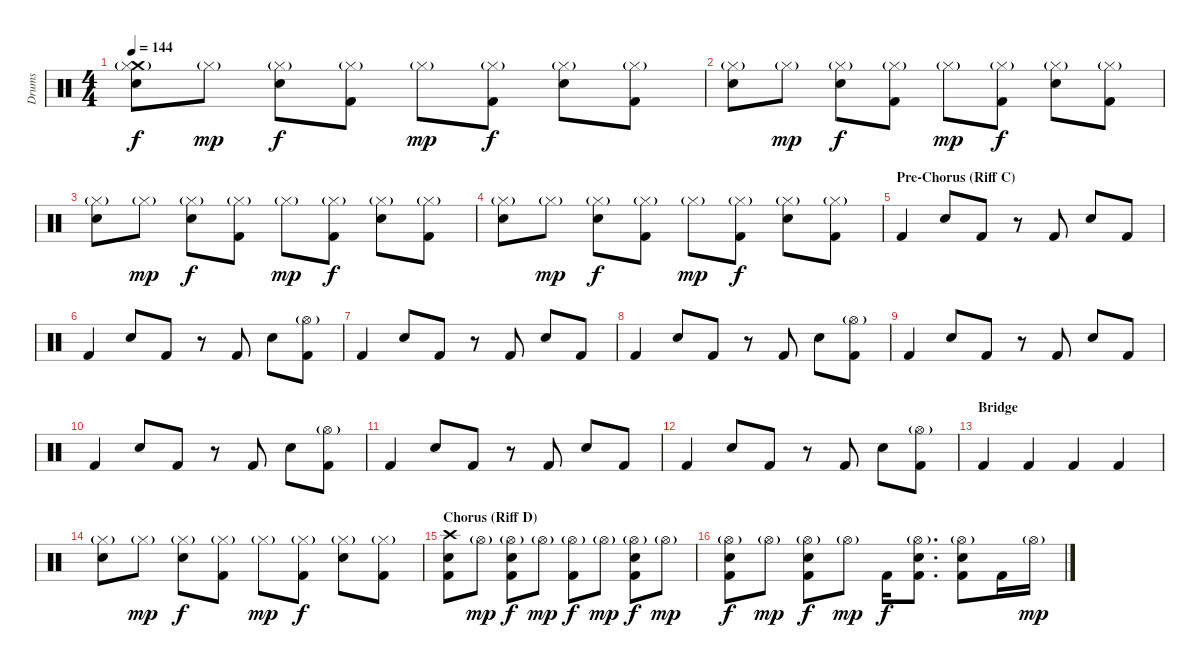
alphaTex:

\track ("Drums" "Drums") {instrument percussion}
\staff {score}
\articulation defaults
\ts (4 4)
\tempo 144
\clef neutral
\ks c
("Crash medium (hit)" "Hi-Hat (closed)"{g} "Electric Snare (hit)").8{dy f} "Hi-Hat (closed)"{g}.8{dy mp} ("Hi-Hat (closed)"{g} "Electric Snare (hit)").8{dy f} ("Hi-Hat (closed)"{g} "Kick (hit) 2").8 "Hi-Hat (closed)"{g}.8{dy mp} ("Hi-Hat (closed)"{g} "Kick (hit) 2").8{dy f} ("Hi-Hat (closed)"{g} "Electric Snare (hit)").8 ("Hi-Hat (closed)"{g} "Kick (hit) 2").8 |
("Hi-Hat (closed)"{g} "Electric Snare (hit)").8 "Hi-Hat (closed)"{g}.8{dy mp} ("Hi-Hat (closed)"{g} "Electric Snare (hit)").8{dy f} ("Hi-Hat (closed)"{g} "Kick (hit) 2").8 "Hi-Hat (closed)"{g}.8{dy mp} ("Hi-Hat (closed)"{g} "Kick (hit) 2").8{dy f} ("Hi-Hat (closed)"{g} "Electric Snare (hit)").8 ("Hi-Hat (closed)"{g} "Kick (hit) 2").8 |
("Hi-Hat (closed)"{g} "Electric Snare (hit)").8 "Hi-Hat (closed)"{g}.8{dy mp} ("Hi-Hat (closed)"{g} "Electric Snare (hit)").8{dy f} ("Hi-Hat (closed)"{g} "Kick (hit) 2").8 "Hi-Hat (closed)"{g}.8{dy mp} ("Hi-Hat (closed)"{g} "Kick (hit) 2").8{dy f} ("Hi-Hat (closed)"{g} "Electric Snare (hit)").8 ("Hi-Hat (closed)"{g} "Kick (hit) 2").8 |
("Hi-Hat (closed)"{g} "Electric Snare (hit)").8 "Hi-Hat (closed)"{g}.8{dy mp} ("Hi-Hat (closed)"{g} "Electric Snare (hit)").8{dy f} ("Hi-Hat (closed)"{g} "Kick (hit) 2").8 "Hi-Hat (closed)"{g}.8{dy mp} ("Hi-Hat (closed)"{g} "Kick (hit) 2").8{dy f} ("Hi-Hat (closed)"{g} "Electric Snare (hit)").8 ("Hi-Hat (closed)"{g} "Kick (hit) 2").8 |
\section ("" "Pre-Chorus (Riff C)")
"Kick (hit) 2".4 "Snare (hit) 2".8 "Kick (hit) 2".8 r.8 "Kick (hit) 2".8 "Snare (hit) 2".8 "Kick (hit) 2".8 |
"Kick (hit) 2".4 "Snare (hit) 2".8 "Kick (hit) 2".8 r.8 "Kick (hit) 2".8 "Snare (hit) 2".8 ("Hi-Hat (open)"{g} "Kick (hit) 2").8 |
"Kick (hit) 2".4 "Snare (hit) 2".8 "Kick (hit) 2".8 r.8 "Kick (hit) 2".8 "Snare (hit) 2".8 "Kick (hit) 2".8 |
"Kick (hit) 2".4 "Snare (hit) 2".8 "Kick (hit) 2".8 r.8 "Kick (hit) 2".8 "Snare (hit) 2".8 ("Hi-Hat (open)"{g} "Kick (hit) 2").8 |
"Kick (hit) 2".4 "Snare (hit) 2".8 "Kick (hit) 2".8 r.8 "Kick (hit) 2".8 "Snare (hit) 2".8 "Kick (hit) 2".8 |
"Kick (hit) 2".4 "Snare (hit) 2".8 "Kick (hit) 2".8 r.8 "Kick (hit) 2".8 "Snare (hit) 2".8 ("Hi-Hat (open)"{g} "Kick (hit) 2").8 |
"Kick (hit) 2".4 "Snare (hit) 2".8 "Kick (hit) 2".8 r.8 "Kick (hit) 2".8 "Snare (hit) 2".8 "Kick (hit) 2".8 |
"Kick (hit) 2".4 "Snare (hit) 2".8 "Kick (hit) 2".8 r.8 "Kick (hit) 2".8 "Snare (hit) 2".8 ("Hi-Hat (open)"{g} "Kick (hit) 2").8 |
\section ("" "Bridge")
"Kick (hit) 2".4 "Kick (hit) 2".4 "Kick (hit) 2".4 "Kick (hit) 2".4 |
("Hi-Hat (closed)"{g} "Electric Snare (hit)").8 "Hi-Hat (closed)"{g}.8{dy mp} ("Hi-Hat (closed)"{g} "Electric Snare (hit)").8{dy f} ("Hi-Hat (closed)"{g} "Kick (hit) 2").8 "Hi-Hat (closed)"{g}.8{dy mp} ("Hi-Hat (closed)"{g} "Kick (hit) 2").8{dy f} ("Hi-Hat (closed)"{g} "Electric Snare (hit)").8 ("Hi-Hat (closed)"{g} "Kick (hit) 2").8 |
\section ("" "Chorus (Riff D)")
("Crash high (hit)" "Snare (hit) 2" "Kick (hit) 2").8 "Hi-Hat (open)"{g}.8{dy mp} ("Hi-Hat (open)"{g} "Snare (hit) 2" "Kick (hit) 2").8{dy f} "Hi-Hat (open)"{g}.8{dy mp} ("Hi-Hat (open)"{g} "Kick (hit) 2").8{dy f} "Hi-Hat (open)"{g}.8{dy mp} ("Hi-Hat (open)"{g} "Snare (hit) 2" "Kick (hit) 2").8{dy f} "Hi-Hat (open)"{g}.8{dy mp} |
("Hi-Hat (open)"{g} "Snare (hit) 2" "Kick (hit) 2").8{dy f} "Hi-Hat (open)"{g}.8{dy mp} ("Hi-Hat (open)"{g} "Snare (hit) 2" "Kick (hit) 2").8{dy f} "Hi-Hat (open)"{g}.8{dy mp} "Kick (hit) 2".16{dy f} ("Hi-Hat (open)"{g} "Snare (hit) 2" "Kick (hit) 2").8{d} ("Hi-Hat (open)"{g} "Snare (hit) 2" "Kick (hit) 2").8 "Kick (hit) 2".16 "Hi-Hat (open)"{g}.16{dy mp}
